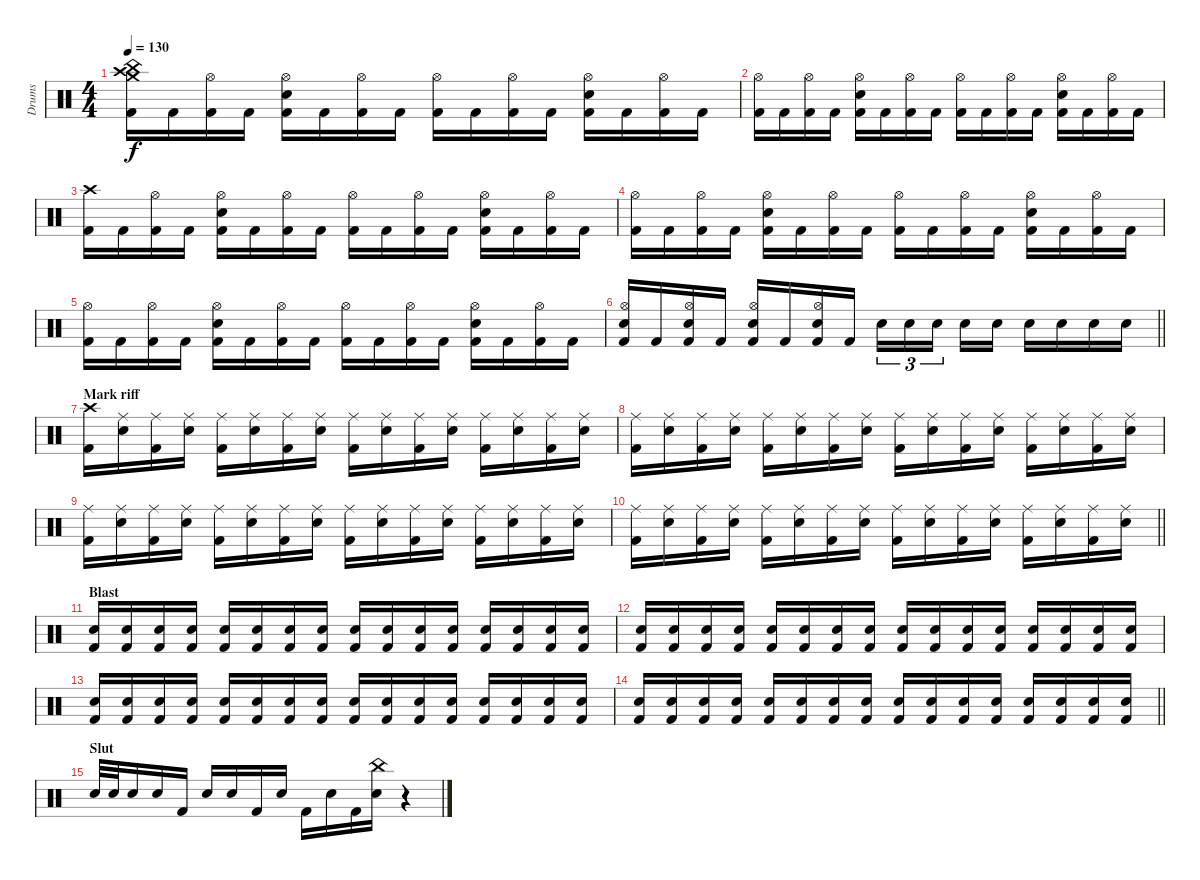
\track ("Drums" "Drums") {instrument percussion}
\staff {score}
\articulation defaults
\ts (4 4)
\tempo 130
\clef neutral
\ks c
("Crash medium (hit)" "Crash high (hit)" "China (hit)" "Kick (hit) 2").16{dy f} "Kick (hit) 2".16 ("Hi-Hat (open)" "Kick (hit) 2").16 "Kick (hit) 2".16 ("Hi-Hat (open)" "Electric Snare (hit)" "Kick (hit) 2").16 "Kick (hit) 2".16 ("Hi-Hat (open)" "Kick (hit) 2").16 "Kick (hit) 2".16 ("Hi-Hat (open)" "Kick (hit) 2").16 "Kick (hit) 2".16 ("Hi-Hat (open)" "Kick (hit) 2").16 "Kick (hit) 2".16 ("Hi-Hat (open)" "Electric Snare (hit)" "Kick (hit) 2").16 "Kick (hit) 2".16 ("Hi-Hat (open)" "Kick (hit) 2").16 "Kick (hit) 2".16 |
("Hi-Hat (open)" "Kick (hit) 2").16 "Kick (hit) 2".16 ("Hi-Hat (open)" "Kick (hit) 2").16 "Kick (hit) 2".16 ("Hi-Hat (open)" "Electric Snare (hit)" "Kick (hit) 2").16 "Kick (hit) 2".16 ("Hi-Hat (open)" "Kick (hit) 2").16 "Kick (hit) 2".16 ("Hi-Hat (open)" "Kick (hit) 2").16 "Kick (hit) 2".16 ("Hi-Hat (open)" "Kick (hit) 2").16 "Kick (hit) 2".16 ("Hi-Hat (open)" "Electric Snare (hit)" "Kick (hit) 2").16 "Kick (hit) 2".16 ("Hi-Hat (open)" "Kick (hit) 2").16 "Kick (hit) 2".16 |
("Crash high (hit)" "Kick (hit) 2").16 "Kick (hit) 2".16 ("Hi-Hat (open)" "Kick (hit) 2").16 "Kick (hit) 2".16 ("Hi-Hat (open)" "Electric Snare (hit)" "Kick (hit) 2").16 "Kick (hit) 2".16 ("Hi-Hat (open)" "Kick (hit) 2").16 "Kick (hit) 2".16 ("Hi-Hat (open)" "Kick (hit) 2").16 "Kick (hit) 2".16 ("Hi-Hat (open)" "Kick (hit) 2").16 "Kick (hit) 2".16 ("Hi-Hat (open)" "Electric Snare (hit)" "Kick (hit) 2").16 "Kick (hit) 2".16 ("Hi-Hat (open)" "Kick (hit) 2").16 "Kick (hit) 2".16 |
("Hi-Hat (open)" "Kick (hit) 2").16 "Kick (hit) 2".16 ("Hi-Hat (open)" "Kick (hit) 2").16 "Kick (hit) 2".16 ("Hi-Hat (open)" "Electric Snare (hit)" "Kick (hit) 2").16 "Kick (hit) 2".16 ("Hi-Hat (open)" "Kick (hit) 2").16 "Kick (hit) 2".16 ("Hi-Hat (open)" "Kick (hit) 2").16 "Kick (hit) 2".16 ("Hi-Hat (open)" "Kick (hit) 2").16 "Kick (hit) 2".16 ("Hi-Hat (open)" "Electric Snare (hit)" "Kick (hit) 2").16 "Kick (hit) 2".16 ("Hi-Hat (open)" "Kick (hit) 2").16 "Kick (hit) 2".16 |
("Hi-Hat (open)" "Kick (hit) 2").16 "Kick (hit) 2".16 ("Hi-Hat (open)" "Kick (hit) 2").16 "Kick (hit) 2".16 ("Hi-Hat (open)" "Electric Snare (hit)" "Kick (hit) 2").16 "Kick (hit) 2".16 ("Hi-Hat (open)" "Kick (hit) 2").16 "Kick (hit) 2".16 ("Hi-Hat (open)" "Kick (hit) 2").16 "Kick (hit) 2".16 ("Hi-Hat (open)" "Kick (hit) 2").16 "Kick (hit) 2".16 ("Hi-Hat (open)" "Electric Snare (hit)" "Kick (hit) 2").16 "Kick (hit) 2".16 ("Hi-Hat (open)" "Kick (hit) 2").16 "Kick (hit) 2".16 |
\barLineRight lightlight
("Hi-Hat (open)" "Electric Snare (hit)" "Kick (hit) 2").16 "Kick (hit) 2".16 ("Hi-Hat (open)" "Electric Snare (hit)" "Kick (hit) 2").16 "Kick (hit) 2".16 ("Hi-Hat (open)" "Electric Snare (hit)" "Kick (hit) 2").16 "Kick (hit) 2".16 ("Hi-Hat (open)" "Electric Snare (hit)" "Kick (hit) 2").16 "Kick (hit) 2".16 "Electric Snare (hit)".16{tu (3 2)} "Electric Snare (hit)".16{tu (3 2)} "Electric Snare (hit)".16{tu (3 2) beam splitsecondary} "Electric Snare (hit)".16 "Electric Snare (hit)".16 "Electric Snare (hit)".16 "Electric Snare (hit)".16 "Electric Snare (hit)".16 "Electric Snare (hit)".16 |
\section ("" "Mark riff")
("Crash high (hit)" "Kick (hit) 2").16 ("Ride (middle)" "Snare (hit) 2").16 ("Ride (middle)" "Kick (hit) 2").16 ("Ride (middle)" "Snare (hit) 2").16 ("Ride (middle)" "Kick (hit) 2").16 ("Ride (middle)" "Snare (hit) 2").16 ("Ride (middle)" "Kick (hit) 2").16 ("Ride (middle)" "Snare (hit) 2").16 ("Ride (middle)" "Kick (hit) 2").16 ("Ride (middle)" "Snare (hit) 2").16 ("Ride (middle)" "Kick (hit) 2").16 ("Ride (middle)" "Snare (hit) 2").16 ("Ride (middle)" "Kick (hit) 2").16 ("Ride (middle)" "Snare (hit) 2").16 ("Ride (middle)" "Kick (hit) 2").16 ("Ride (middle)" "Snare (hit) 2").16 |
("Ride (middle)" "Kick (hit) 2").16 ("Ride (middle)" "Snare (hit) 2").16 ("Ride (middle)" "Kick (hit) 2").16 ("Ride (middle)" "Snare (hit) 2").16 ("Ride (middle)" "Kick (hit) 2").16 ("Ride (middle)" "Snare (hit) 2").16 ("Ride (middle)" "Kick (hit) 2").16 ("Ride (middle)" "Snare (hit) 2").16 ("Ride (middle)" "Kick (hit) 2").16 ("Ride (middle)" "Snare (hit) 2").16 ("Ride (middle)" "Kick (hit) 2").16 ("Ride (middle)" "Snare (hit) 2").16 ("Ride (middle)" "Kick (hit) 2").16 ("Ride (middle)" "Snare (hit) 2").16 ("Ride (middle)" "Kick (hit) 2").16 ("Ride (middle)" "Snare (hit) 2").16 |
("Ride (middle)" "Kick (hit) 2").16 ("Ride (middle)" "Snare (hit) 2").16 ("Ride (middle)" "Kick (hit) 2").16 ("Ride (middle)" "Snare (hit) 2").16 ("Ride (middle)" "Kick (hit) 2").16 ("Ride (middle)" "Snare (hit) 2").16 ("Ride (middle)" "Kick (hit) 2").16 ("Ride (middle)" "Snare (hit) 2").16 ("Ride (middle)" "Kick (hit) 2").16 ("Ride (middle)" "Snare (hit) 2").16 ("Ride (middle)" "Kick (hit) 2").16 ("Ride (middle)" "Snare (hit) 2").16 ("Ride (middle)" "Kick (hit) 2").16 ("Ride (middle)" "Snare (hit) 2").16 ("Ride (middle)" "Kick (hit) 2").16 ("Ride (middle)" "Snare (hit) 2").16 |
\barLineRight lightlight
("Ride (middle)" "Kick (hit) 2").16 ("Ride (middle)" "Snare (hit) 2").16 ("Ride (middle)" "Kick (hit) 2").16 ("Ride (middle)" "Snare (hit) 2").16 ("Ride (middle)" "Kick (hit) 2").16 ("Ride (middle)" "Snare (hit) 2").16 ("Ride (middle)" "Kick (hit) 2").16 ("Ride (middle)" "Snare (hit) 2").16 ("Ride (middle)" "Kick (hit) 2").16 ("Ride (middle)" "Snare (hit) 2").16 ("Ride (middle)" "Kick (hit) 2").16 ("Ride (middle)" "Snare (hit) 2").16 ("Ride (middle)" "Kick (hit) 2").16 ("Ride (middle)" "Snare (hit) 2").16 ("Ride (middle)" "Kick (hit) 2").16 ("Ride (middle)" "Snare (hit) 2").16 |
\section ("" "Blast")
("Snare (hit) 2" "Kick (hit) 2").16 ("Snare (hit) 2" "Kick (hit) 2").16 ("Snare (hit) 2" "Kick (hit) 2").16 ("Snare (hit) 2" "Kick (hit) 2").16 ("Snare (hit) 2" "Kick (hit) 2").16 ("Snare (hit) 2" "Kick (hit) 2").16 ("Snare (hit) 2" "Kick (hit) 2").16 ("Snare (hit) 2" "Kick (hit) 2").16 ("Snare (hit) 2" "Kick (hit) 2").16 ("Snare (hit) 2" "Kick (hit) 2").16 ("Snare (hit) 2" "Kick (hit) 2").16 ("Snare (hit) 2" "Kick (hit) 2").16 ("Snare (hit) 2" "Kick (hit) 2").16 ("Snare (hit) 2" "Kick (hit) 2").16 ("Snare (hit) 2" "Kick (hit) 2").16 ("Snare (hit) 2" "Kick (hit) 2").16 |
("Snare (hit) 2" "Kick (hit) 2").16 ("Snare (hit) 2" "Kick (hit) 2").16 ("Snare (hit) 2" "Kick (hit) 2").16 ("Snare (hit) 2" "Kick (hit) 2").16 ("Snare (hit) 2" "Kick (hit) 2").16 ("Snare (hit) 2" "Kick (hit) 2").16 ("Snare (hit) 2" "Kick (hit) 2").16 ("Snare (hit) 2" "Kick (hit) 2").16 ("Snare (hit) 2" "Kick (hit) 2").16 ("Snare (hit) 2" "Kick (hit) 2").16 ("Snare (hit) 2" "Kick (hit) 2").16 ("Snare (hit) 2" "Kick (hit) 2").16 ("Snare (hit) 2" "Kick (hit) 2").16 ("Snare (hit) 2" "Kick (hit) 2").16 ("Snare (hit) 2" "Kick (hit) 2").16 ("Snare (hit) 2" "Kick (hit) 2").16 |
("Snare (hit) 2" "Kick (hit) 2").16 ("Snare (hit) 2" "Kick (hit) 2").16 ("Snare (hit) 2" "Kick (hit) 2").16 ("Snare (hit) 2" "Kick (hit) 2").16 ("Snare (hit) 2" "Kick (hit) 2").16 ("Snare (hit) 2" "Kick (hit) 2").16 ("Snare (hit) 2" "Kick (hit) 2").16 ("Snare (hit) 2" "Kick (hit) 2").16 ("Snare (hit) 2" "Kick (hit) 2").16 ("Snare (hit) 2" "Kick (hit) 2").16 ("Snare (hit) 2" "Kick (hit) 2").16 ("Snare (hit) 2" "Kick (hit) 2").16 ("Snare (hit) 2" "Kick (hit) 2").16 ("Snare (hit) 2" "Kick (hit) 2").16 ("Snare (hit) 2" "Kick (hit) 2").16 ("Snare (hit) 2" "Kick (hit) 2").16 |
\barLineRight lightlight
("Snare (hit) 2" "Kick (hit) 2").16 ("Snare (hit) 2" "Kick (hit) 2").16 ("Snare (hit) 2" "Kick (hit) 2").16 ("Snare (hit) 2" "Kick (hit) 2").16 ("Snare (hit) 2" "Kick (hit) 2").16 ("Snare (hit) 2" "Kick (hit) 2").16 ("Snare (hit) 2" "Kick (hit) 2").16 ("Snare (hit) 2" "Kick (hit) 2").16 ("Snare (hit) 2" "Kick (hit) 2").16 ("Snare (hit) 2" "Kick (hit) 2").16 ("Snare (hit) 2" "Kick (hit) 2").16 ("Snare (hit) 2" "Kick (hit) 2").16 ("Snare (hit) 2" "Kick (hit) 2").16 ("Snare (hit) 2" "Kick (hit) 2").16 ("Snare (hit) 2" "Kick (hit) 2").16 ("Snare (hit) 2" "Kick (hit) 2").16 |
\section ("" "Slut ")
"Snare (hit) 2".32 "Snare (hit) 2".32 "Snare (hit) 2".16 "Snare (hit) 2".16 "Kick (hit) 2".16 "Snare (hit) 2".16 "Snare (hit) 2".16 "Kick (hit) 2".16 "Snare (hit) 2".16 "Kick (hit) 2".16 "Snare (hit) 2".16 "Kick (hit) 2".16 ("China (hit)" "Snare (hit) 2").16 r.4
